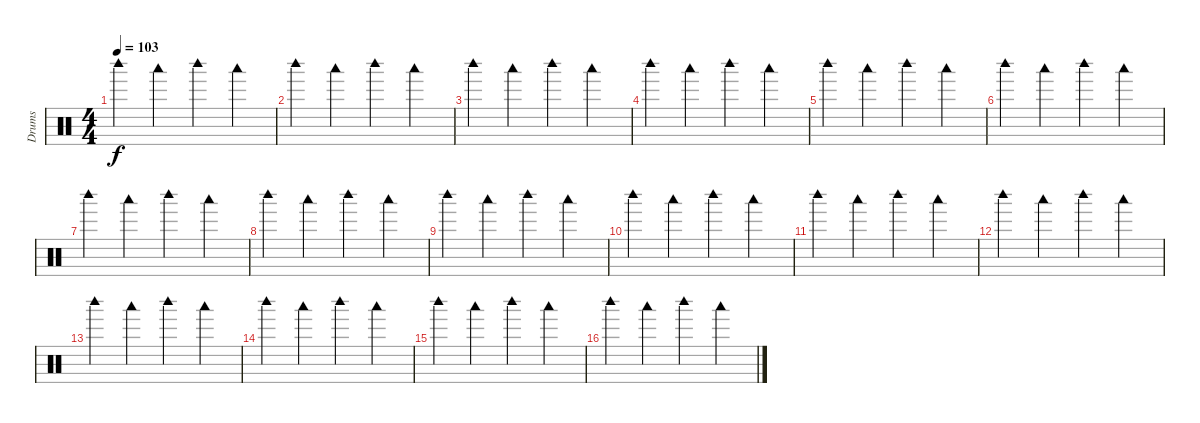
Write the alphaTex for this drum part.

\track ("Drums" "Drums") {instrument percussion}
\staff {score}
\articulation defaults
\ts (4 4)
\tempo 103
\clef neutral
\ks c "Woodblock high (hit)".4{dy f} "Woodblock low (hit)".4 "Woodblock high (hit)".4 "Woodblock low (hit)".4
|
"Woodblock high (hit)".4 "Woodblock low (hit)".4 "Woodblock high (hit)".4 "Woodblock low (hit)".4 |
"Woodblock high (hit)".4 "Woodblock low (hit)".4 "Woodblock high (hit)".4 "Woodblock low (hit)".4 |
"Woodblock high (hit)".4 "Woodblock low (hit)".4 "Woodblock high (hit)".4 "Woodblock low (hit)".4 |
"Woodblock high (hit)".4 "Woodblock low (hit)".4 "Woodblock high (hit)".4 "Woodblock low (hit)".4 |
"Woodblock high (hit)".4 "Woodblock low (hit)".4 "Woodblock high (hit)".4 "Woodblock low (hit)".4 |
"Woodblock high (hit)".4 "Woodblock low (hit)".4 "Woodblock high (hit)".4 "Woodblock low (hit)".4 |
"Woodblock high (hit)".4 "Woodblock low (hit)".4 "Woodblock high (hit)".4 "Woodblock low (hit)".4 |
"Woodblock high (hit)".4 "Woodblock low (hit)".4 "Woodblock high (hit)".4 "Woodblock low (hit)".4 |
"Woodblock high (hit)".4 "Woodblock low (hit)".4 "Woodblock high (hit)".4 "Woodblock low (hit)".4 |
"Woodblock high (hit)".4 "Woodblock low (hit)".4 "Woodblock high (hit)".4 "Woodblock low (hit)".4 |
"Woodblock high (hit)".4 "Woodblock low (hit)".4 "Woodblock high (hit)".4 "Woodblock low (hit)".4 |
"Woodblock high (hit)".4 "Woodblock low (hit)".4 "Woodblock high (hit)".4 "Woodblock low (hit)".4 |
"Woodblock high (hit)".4 "Woodblock low (hit)".4 "Woodblock high (hit)".4 "Woodblock low (hit)".4 |
"Woodblock high (hit)".4 "Woodblock low (hit)".4 "Woodblock high (hit)".4 "Woodblock low (hit)".4 |
"Woodblock high (hit)".4 "Woodblock low (hit)".4 "Woodblock high (hit)".4 "Woodblock low (hit)".4
